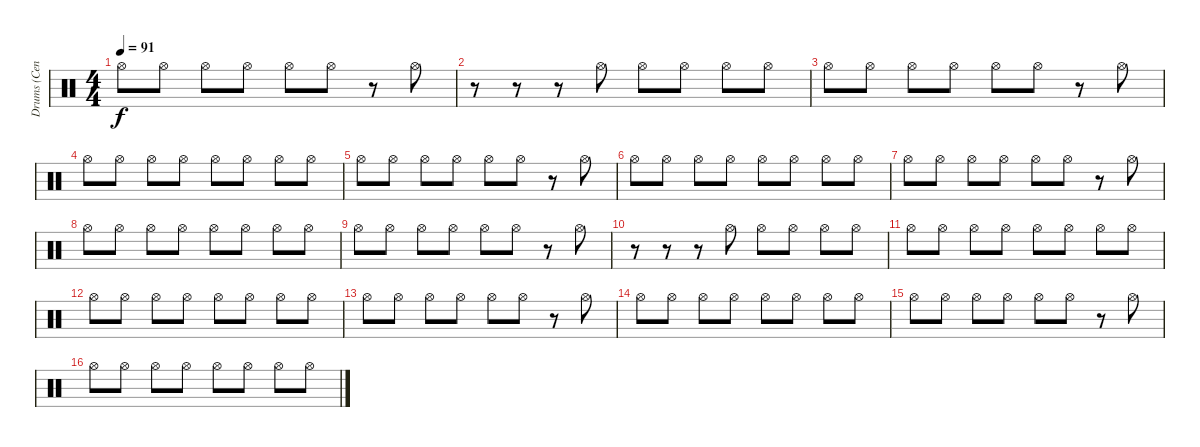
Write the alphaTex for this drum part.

\track ("Drums (Cenk)" "Drums (Cen") {instrument percussion}
\staff {score}
\articulation defaults
\ts (4 4)
\tempo 91
\clef neutral
\ks c "Hi-Hat (open)".8{dy f} "Hi-Hat (open)".8 "Hi-Hat (open)".8 "Hi-Hat (open)".8 "Hi-Hat (open)".8 "Hi-Hat (open)".8
r.8 "Hi-Hat (open)".8 |
r.8 r.8 r.8 "Hi-Hat (open)".8 "Hi-Hat (open)".8 "Hi-Hat (open)".8 "Hi-Hat (open)".8 "Hi-Hat (open)".8 |
"Hi-Hat (open)".8 "Hi-Hat (open)".8 "Hi-Hat (open)".8 "Hi-Hat (open)".8 "Hi-Hat (open)".8 "Hi-Hat (open)".8 r.8 "Hi-Hat (open)".8 |
"Hi-Hat (open)".8 "Hi-Hat (open)".8 "Hi-Hat (open)".8 "Hi-Hat (open)".8 "Hi-Hat (open)".8 "Hi-Hat (open)".8 "Hi-Hat (open)".8 "Hi-Hat (open)".8 |
"Hi-Hat (open)".8 "Hi-Hat (open)".8 "Hi-Hat (open)".8 "Hi-Hat (open)".8 "Hi-Hat (open)".8 "Hi-Hat (open)".8 r.8 "Hi-Hat (open)".8 |
"Hi-Hat (open)".8 "Hi-Hat (open)".8 "Hi-Hat (open)".8 "Hi-Hat (open)".8 "Hi-Hat (open)".8 "Hi-Hat (open)".8 "Hi-Hat (open)".8 "Hi-Hat (open)".8 |
"Hi-Hat (open)".8 "Hi-Hat (open)".8 "Hi-Hat (open)".8 "Hi-Hat (open)".8 "Hi-Hat (open)".8 "Hi-Hat (open)".8 r.8 "Hi-Hat (open)".8 |
"Hi-Hat (open)".8 "Hi-Hat (open)".8 "Hi-Hat (open)".8 "Hi-Hat (open)".8 "Hi-Hat (open)".8 "Hi-Hat (open)".8 "Hi-Hat (open)".8 "Hi-Hat (open)".8 |
"Hi-Hat (open)".8 "Hi-Hat (open)".8 "Hi-Hat (open)".8 "Hi-Hat (open)".8 "Hi-Hat (open)".8 "Hi-Hat (open)".8 r.8 "Hi-Hat (open)".8 |
r.8 r.8 r.8 "Hi-Hat (open)".8 "Hi-Hat (open)".8 "Hi-Hat (open)".8 "Hi-Hat (open)".8 "Hi-Hat (open)".8 |
"Hi-Hat (open)".8 "Hi-Hat (open)".8 "Hi-Hat (open)".8 "Hi-Hat (open)".8 "Hi-Hat (open)".8 "Hi-Hat (open)".8 "Hi-Hat (open)".8 "Hi-Hat (open)".8 |
"Hi-Hat (open)".8 "Hi-Hat (open)".8 "Hi-Hat (open)".8 "Hi-Hat (open)".8 "Hi-Hat (open)".8 "Hi-Hat (open)".8 "Hi-Hat (open)".8 "Hi-Hat (open)".8 |
"Hi-Hat (open)".8 "Hi-Hat (open)".8 "Hi-Hat (open)".8 "Hi-Hat (open)".8 "Hi-Hat (open)".8 "Hi-Hat (open)".8 r.8 "Hi-Hat (open)".8 |
"Hi-Hat (open)".8 "Hi-Hat (open)".8 "Hi-Hat (open)".8 "Hi-Hat (open)".8 "Hi-Hat (open)".8 "Hi-Hat (open)".8 "Hi-Hat (open)".8 "Hi-Hat (open)".8 |
"Hi-Hat (open)".8 "Hi-Hat (open)".8 "Hi-Hat (open)".8 "Hi-Hat (open)".8 "Hi-Hat (open)".8 "Hi-Hat (open)".8 r.8 "Hi-Hat (open)".8 |
"Hi-Hat (open)".8 "Hi-Hat (open)".8 "Hi-Hat (open)".8 "Hi-Hat (open)".8 "Hi-Hat (open)".8 "Hi-Hat (open)".8 "Hi-Hat (open)".8 "Hi-Hat (open)".8
